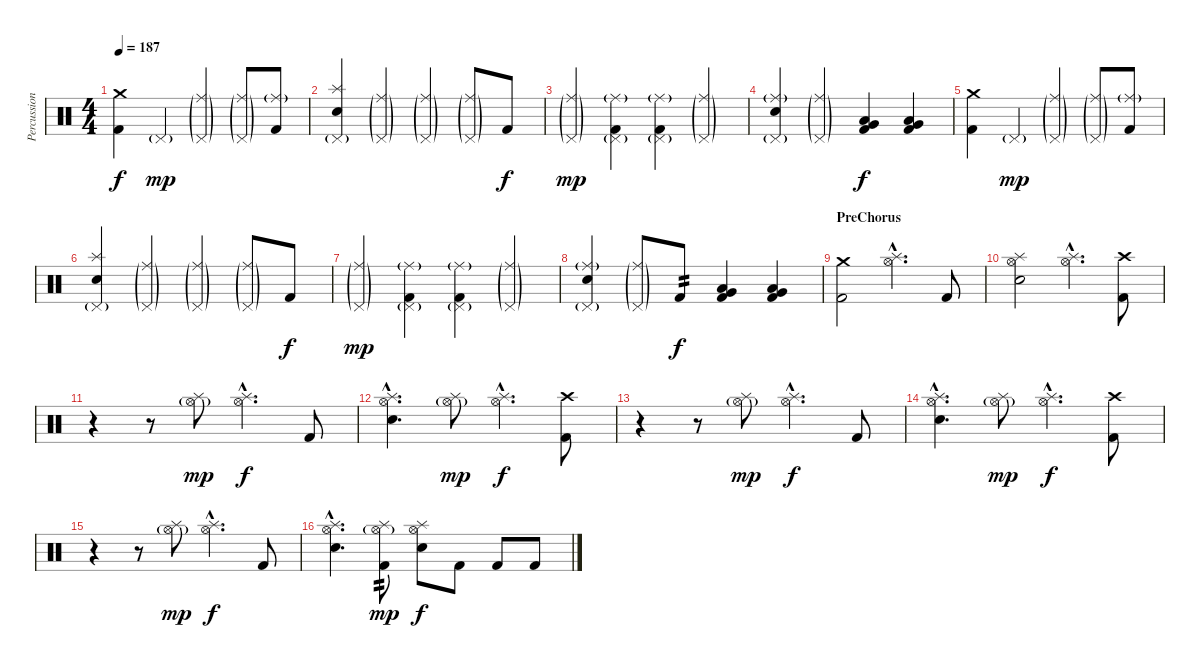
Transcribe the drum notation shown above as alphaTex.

\track ("Percussion" "Percussion") {instrument percussion}
\staff {score}
\articulation defaults
\ts (4 4)
\tempo 187
\clef neutral
\ks c
("Crash medium (hit)" "Kick (hit) 2").4{dy f} "Pedal Hi-Hat (hit)"{g}.4{dy mp} ("Ride (middle)"{g} "Pedal Hi-Hat (hit)"{g}).4 ("Ride (middle)"{g} "Pedal Hi-Hat (hit)"{g}).8 ("Ride (middle)"{g} "Kick (hit) 2").8 |
("Splash (hit)" "Pedal Hi-Hat (hit)"{g} "Electric Snare (hit)").4 ("Ride (middle)"{g} "Pedal Hi-Hat (hit)"{g}).4 ("Ride (middle)"{g} "Pedal Hi-Hat (hit)"{g}).4 ("Ride (middle)"{g} "Pedal Hi-Hat (hit)"{g}).8 "Kick (hit) 2".8{dy f} |
("Ride (middle)"{g} "Pedal Hi-Hat (hit)"{g}).4{dy mp} ("Ride (middle)"{g} "Pedal Hi-Hat (hit)"{g} "Kick (hit) 2").4 ("Ride (middle)"{g} "Pedal Hi-Hat (hit)"{g} "Kick (hit) 2").4 ("Ride (middle)"{g} "Pedal Hi-Hat (hit)"{g}).4 |
("Ride (middle)"{g} "Pedal Hi-Hat (hit)"{g} "Electric Snare (hit)").4 ("Ride (middle)"{g} "Pedal Hi-Hat (hit)"{g}).4 ("Very Low Tom (hit)" "Low Tom (hit)" "Kick (hit) 2").4{dy f} ("Very Low Tom (hit)" "Low Tom (hit)" "Kick (hit) 2").4 |
("Crash medium (hit)" "Kick (hit) 2").4 "Pedal Hi-Hat (hit)"{g}.4{dy mp} ("Ride (middle)"{g} "Pedal Hi-Hat (hit)"{g}).4 ("Ride (middle)"{g} "Pedal Hi-Hat (hit)"{g}).8 ("Ride (middle)"{g} "Kick (hit) 2").8 |
("Splash (hit)" "Pedal Hi-Hat (hit)"{g} "Electric Snare (hit)").4 ("Ride (middle)"{g} "Pedal Hi-Hat (hit)"{g}).4 ("Ride (middle)"{g} "Pedal Hi-Hat (hit)"{g}).4 ("Ride (middle)"{g} "Pedal Hi-Hat (hit)"{g}).8 "Kick (hit) 2".8{dy f} |
("Ride (middle)"{g} "Pedal Hi-Hat (hit)"{g}).4{dy mp} ("Ride (middle)"{g} "Pedal Hi-Hat (hit)"{g} "Kick (hit) 2").4 ("Ride (middle)"{g} "Pedal Hi-Hat (hit)"{g} "Kick (hit) 2").4 ("Ride (middle)"{g} "Pedal Hi-Hat (hit)"{g}).4 |
("Ride (middle)"{g} "Pedal Hi-Hat (hit)"{g} "Electric Snare (hit)").4 ("Ride (middle)"{g} "Pedal Hi-Hat (hit)"{g}).8 "Kick (hit) 2".8{tp 2 dy f} ("Very Low Tom (hit)" "Low Tom (hit)" "Kick (hit) 2").4 ("Very Low Tom (hit)" "Low Tom (hit)" "Kick (hit) 2").4 |
\section ("" "PreChorus")
("Crash medium (hit)" "Kick (hit) 2").2 ("Hi-Hat (open)"{hac} "Splash (hit)"{hac}).4{d} "Kick (hit) 2".8 |
("Hi-Hat (open)" "Splash (hit)" "Electric Snare (hit)").2 ("Hi-Hat (open)"{hac} "Splash (hit)"{hac}).4{d} ("Crash high (hit)" "Kick (hit) 2").8 |
r.4 r.8 ("Hi-Hat (open)"{g} "Splash (hit)").8{dy mp} ("Hi-Hat (open)"{hac} "Splash (hit)"{hac}).4{d dy f} "Kick (hit) 2".8 |
("Hi-Hat (open)"{hac} "Splash (hit)"{hac} "Electric Snare (hit)"{hac}).4{d} ("Hi-Hat (open)"{g} "Splash (hit)").8{dy mp} ("Hi-Hat (open)"{hac} "Splash (hit)"{hac}).4{d dy f} ("Crash high (hit)" "Kick (hit) 2").8 |
r.4 r.8 ("Hi-Hat (open)"{g} "Splash (hit)").8{dy mp} ("Hi-Hat (open)"{hac} "Splash (hit)"{hac}).4{d dy f} "Kick (hit) 2".8 |
("Hi-Hat (open)"{hac} "Splash (hit)"{hac} "Electric Snare (hit)"{hac}).4{d} ("Hi-Hat (open)"{g} "Splash (hit)").8{dy mp} ("Hi-Hat (open)"{hac} "Splash (hit)"{hac}).4{d dy f} ("Crash high (hit)" "Kick (hit) 2").8 |
r.4 r.8 ("Hi-Hat (open)"{g} "Splash (hit)").8{dy mp} ("Hi-Hat (open)"{hac} "Splash (hit)"{hac}).4{d dy f} "Kick (hit) 2".8 |
("Hi-Hat (open)"{hac} "Splash (hit)"{hac} "Electric Snare (hit)"{hac}).4{d} ("Hi-Hat (open)"{g} "Splash (hit)" "Kick (hit) 2").8{tp 2 dy mp} ("Hi-Hat (open)" "Splash (hit)" "Electric Snare (hit)").8{dy f} "Kick (hit) 2".8 "Kick (hit) 2".8 "Kick (hit) 2".8
